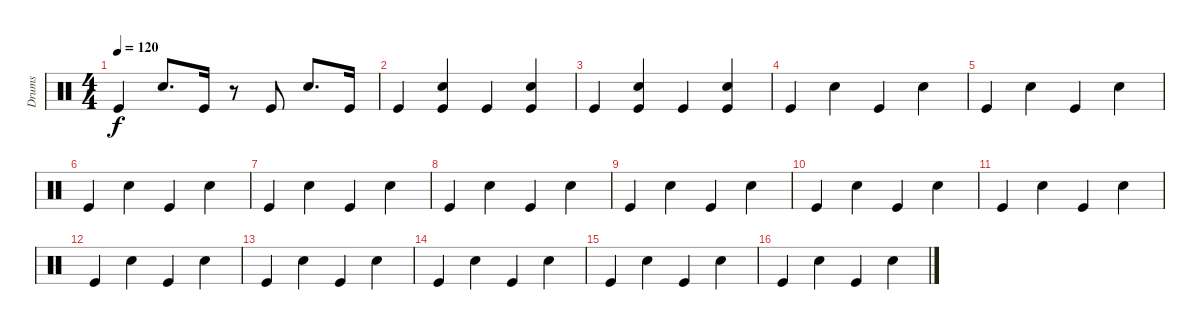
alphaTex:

\track ("Drums" "Drums") {instrument percussion}
\staff {score}
\articulation defaults
\ts (4 4)
\tempo 120
\clef neutral
\ks c "Kick (hit)".4{dy f} "Snare (hit) 2".8{d} "Kick (hit)".16
r.8 "Kick (hit)".8 "Snare (hit) 2".8{d} "Kick (hit)".16 |
"Kick (hit)".4 ("Snare (hit) 2" "Kick (hit)").4 "Kick (hit)".4 ("Snare (hit) 2" "Kick (hit)").4 |
"Kick (hit)".4 ("Snare (hit) 2" "Kick (hit)").4 "Kick (hit)".4 ("Snare (hit) 2" "Kick (hit)").4 |
"Kick (hit)".4 "Snare (hit) 2".4 "Kick (hit)".4 "Snare (hit) 2".4 |
"Kick (hit)".4 "Snare (hit) 2".4 "Kick (hit)".4 "Snare (hit) 2".4 |
"Kick (hit)".4 "Snare (hit) 2".4 "Kick (hit)".4 "Snare (hit) 2".4 |
"Kick (hit)".4 "Snare (hit) 2".4 "Kick (hit)".4 "Snare (hit) 2".4 |
"Kick (hit)".4 "Snare (hit) 2".4 "Kick (hit)".4 "Snare (hit) 2".4 |
"Kick (hit)".4 "Snare (hit) 2".4 "Kick (hit)".4 "Snare (hit) 2".4 |
"Kick (hit)".4 "Snare (hit) 2".4 "Kick (hit)".4 "Snare (hit) 2".4 |
"Kick (hit)".4 "Snare (hit) 2".4 "Kick (hit)".4 "Snare (hit) 2".4 |
"Kick (hit)".4 "Snare (hit) 2".4 "Kick (hit)".4 "Snare (hit) 2".4 |
"Kick (hit)".4 "Snare (hit) 2".4 "Kick (hit)".4 "Snare (hit) 2".4 |
"Kick (hit)".4 "Snare (hit) 2".4 "Kick (hit)".4 "Snare (hit) 2".4 |
"Kick (hit)".4 "Snare (hit) 2".4 "Kick (hit)".4 "Snare (hit) 2".4 |
"Kick (hit)".4 "Snare (hit) 2".4 "Kick (hit)".4 "Snare (hit) 2".4
